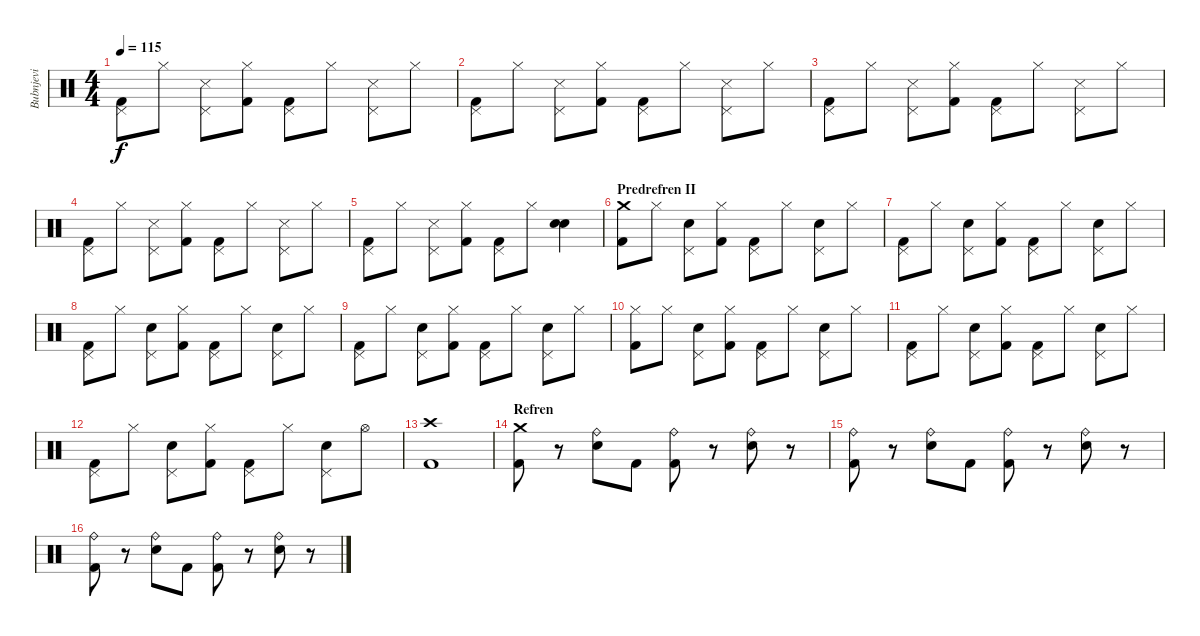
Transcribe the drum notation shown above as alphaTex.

\track ("Bubnjevi" "Bubnjevi") {instrument percussion}
\staff {score}
\articulation defaults
\ts (4 4)
\tempo 115
\clef neutral
\ks c
("Pedal Hi-Hat (hit)" "Kick (hit) 2").8{dy f} "Hi-Hat (closed)".8 ("Pedal Hi-Hat (hit)" "Snare (side stick) 3").8 ("Hi-Hat (closed)" "Kick (hit) 2").8 ("Pedal Hi-Hat (hit)" "Kick (hit) 2").8 "Hi-Hat (closed)".8 ("Pedal Hi-Hat (hit)" "Snare (side stick) 3").8 "Hi-Hat (closed)".8 |
("Pedal Hi-Hat (hit)" "Kick (hit) 2").8 "Hi-Hat (closed)".8 ("Pedal Hi-Hat (hit)" "Snare (side stick) 3").8 ("Hi-Hat (closed)" "Kick (hit) 2").8 ("Pedal Hi-Hat (hit)" "Kick (hit) 2").8 "Hi-Hat (closed)".8 ("Pedal Hi-Hat (hit)" "Snare (side stick) 3").8 "Hi-Hat (closed)".8 |
("Pedal Hi-Hat (hit)" "Kick (hit) 2").8 "Hi-Hat (closed)".8 ("Pedal Hi-Hat (hit)" "Snare (side stick) 3").8 ("Hi-Hat (closed)" "Kick (hit) 2").8 ("Pedal Hi-Hat (hit)" "Kick (hit) 2").8 "Hi-Hat (closed)".8 ("Pedal Hi-Hat (hit)" "Snare (side stick) 3").8 "Hi-Hat (closed)".8 |
("Pedal Hi-Hat (hit)" "Kick (hit) 2").8 "Hi-Hat (closed)".8 ("Pedal Hi-Hat (hit)" "Snare (side stick) 3").8 ("Hi-Hat (closed)" "Kick (hit) 2").8 ("Pedal Hi-Hat (hit)" "Kick (hit) 2").8 "Hi-Hat (closed)".8 ("Pedal Hi-Hat (hit)" "Snare (side stick) 3").8 "Hi-Hat (closed)".8 |
("Pedal Hi-Hat (hit)" "Kick (hit) 2").8 "Hi-Hat (closed)".8 ("Pedal Hi-Hat (hit)" "Snare (side stick) 3").8 ("Hi-Hat (closed)" "Kick (hit) 2").8 ("Pedal Hi-Hat (hit)" "Kick (hit) 2").8 "Hi-Hat (closed)".8 ("Electric Snare (hit)" "Electric Snare (hit)").4{bd 120} |
\section ("" "Predrefren II")
("Crash medium (hit)" "Kick (hit) 2").8 "Hi-Hat (closed)".8 ("Pedal Hi-Hat (hit)" "Electric Snare (hit)").8 ("Hi-Hat (closed)" "Kick (hit) 2").8 ("Pedal Hi-Hat (hit)" "Kick (hit) 2").8 "Hi-Hat (closed)".8 ("Pedal Hi-Hat (hit)" "Electric Snare (hit)").8 "Hi-Hat (closed)".8 |
("Pedal Hi-Hat (hit)" "Kick (hit) 2").8 "Hi-Hat (closed)".8 ("Pedal Hi-Hat (hit)" "Electric Snare (hit)").8 ("Hi-Hat (closed)" "Kick (hit) 2").8 ("Pedal Hi-Hat (hit)" "Kick (hit) 2").8 "Hi-Hat (closed)".8 ("Pedal Hi-Hat (hit)" "Electric Snare (hit)").8 "Hi-Hat (closed)".8 |
("Pedal Hi-Hat (hit)" "Kick (hit) 2").8 "Hi-Hat (closed)".8 ("Pedal Hi-Hat (hit)" "Electric Snare (hit)").8 ("Hi-Hat (closed)" "Kick (hit) 2").8 ("Pedal Hi-Hat (hit)" "Kick (hit) 2").8 "Hi-Hat (closed)".8 ("Pedal Hi-Hat (hit)" "Electric Snare (hit)").8 "Hi-Hat (closed)".8 |
("Pedal Hi-Hat (hit)" "Kick (hit) 2").8 "Hi-Hat (closed)".8 ("Pedal Hi-Hat (hit)" "Electric Snare (hit)").8 ("Hi-Hat (closed)" "Kick (hit) 2").8 ("Pedal Hi-Hat (hit)" "Kick (hit) 2").8 "Hi-Hat (closed)".8 ("Pedal Hi-Hat (hit)" "Electric Snare (hit)").8 "Hi-Hat (closed)".8 |
("Hi-Hat (closed)" "Kick (hit) 2").8 "Hi-Hat (closed)".8 ("Pedal Hi-Hat (hit)" "Electric Snare (hit)").8 ("Hi-Hat (closed)" "Kick (hit) 2").8 ("Pedal Hi-Hat (hit)" "Kick (hit) 2").8 "Hi-Hat (closed)".8 ("Pedal Hi-Hat (hit)" "Electric Snare (hit)").8 "Hi-Hat (closed)".8 |
("Pedal Hi-Hat (hit)" "Kick (hit) 2").8 "Hi-Hat (closed)".8 ("Pedal Hi-Hat (hit)" "Electric Snare (hit)").8 ("Hi-Hat (closed)" "Kick (hit) 2").8 ("Pedal Hi-Hat (hit)" "Kick (hit) 2").8 "Hi-Hat (closed)".8 ("Pedal Hi-Hat (hit)" "Electric Snare (hit)").8 "Hi-Hat (closed)".8 |
("Pedal Hi-Hat (hit)" "Kick (hit) 2").8 "Hi-Hat (closed)".8 ("Pedal Hi-Hat (hit)" "Electric Snare (hit)").8 ("Hi-Hat (closed)" "Kick (hit) 2").8 ("Pedal Hi-Hat (hit)" "Kick (hit) 2").8 "Hi-Hat (closed)".8 ("Pedal Hi-Hat (hit)" "Electric Snare (hit)").8 "Hi-Hat (open)".8 |
("Crash high (hit)" "Kick (hit) 2").1 |
\section ("" "Refren")
("Crash medium (hit)" "Kick (hit) 2").8 r.8 ("Ride (bell)" "Electric Snare (hit)").8 "Kick (hit) 2".8 ("Ride (bell)" "Kick (hit) 2").8 r.8 ("Ride (bell)" "Electric Snare (hit)").8 r.8 |
("Ride (bell)" "Kick (hit) 2").8 r.8 ("Ride (bell)" "Electric Snare (hit)").8 "Kick (hit) 2".8 ("Ride (bell)" "Kick (hit) 2").8 r.8 ("Ride (bell)" "Electric Snare (hit)").8 r.8 |
("Ride (bell)" "Kick (hit) 2").8 r.8 ("Ride (bell)" "Electric Snare (hit)").8 "Kick (hit) 2".8 ("Ride (bell)" "Kick (hit) 2").8 r.8 ("Ride (bell)" "Electric Snare (hit)").8 r.8
